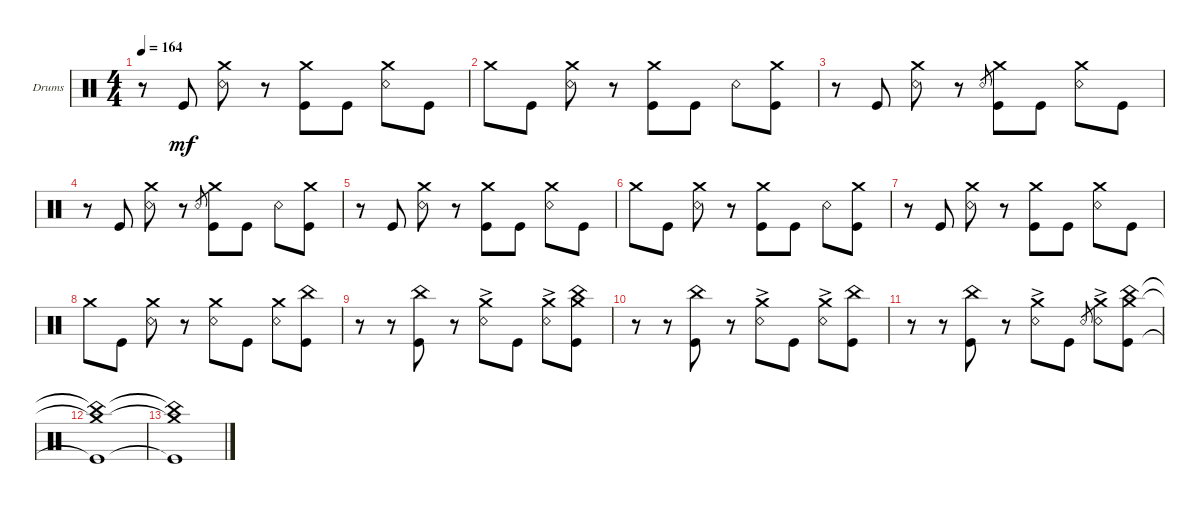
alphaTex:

\defaultSystemsLayout 4
\bracketExtendMode groupsimilarinstruments
\firstSystemTrackNameOrientation horizontal
\otherSystemsTrackNameOrientation horizontal
\track ("Drums" "Drums") {instrument percussion}
\staff {score}
\articulation defaults
\ts (4 4)
\tempo 164
\clef neutral
\scale
0.333333
\ks c
r.8{dy mf} "Kick (hit)".8 ("Snare (rim shot)" "Crash medium (hit)").8 r.8 ("Kick (hit)" "Crash medium (hit)").8 "Kick (hit)".8 ("Snare (rim shot)" "Crash medium (hit)").8 "Kick (hit)".8 |
\scale
0.333333 "Crash medium (hit)".8 "Kick (hit)".8 ("Snare (rim shot)" "Crash medium (hit)").8 r.8 ("Kick (hit)" "Crash medium (hit)").8 "Kick (hit)".8 "Snare (rim shot)".8 ("Crash medium (hit)" "Kick (hit)").8 |
\scale
0.333333 r.8 "Kick (hit)".8 ("Snare (rim shot)" "Crash medium (hit)").8 r.8 "Snare (rim shot)".8{gr} ("Kick (hit)" "Crash medium (hit)").8 "Kick (hit)".8 ("Snare (rim shot)" "Crash medium (hit)").8 "Kick (hit)".8 |
\scale
0.333333 r.8 "Kick (hit)".8 ("Snare (rim shot)" "Crash medium (hit)").8 r.8 "Snare (rim shot)".8{gr} ("Kick (hit)" "Crash medium (hit)").8 "Kick (hit)".8 "Snare (rim shot)".8 ("Kick (hit)" "Crash medium (hit)").8 |
\scale
0.333333 r.8 "Kick (hit)".8 ("Snare (rim shot)" "Crash medium (hit)").8 r.8 ("Kick (hit)" "Crash medium (hit)").8 "Kick (hit)".8 ("Snare (rim shot)" "Crash medium (hit)").8 "Kick (hit)".8 |
\scale
0.333333 "Crash medium (hit)".8 "Kick (hit)".8 ("Snare (rim shot)" "Crash medium (hit)").8 r.8 ("Kick (hit)" "Crash medium (hit)").8 "Kick (hit)".8 "Snare (rim shot)".8 ("Crash medium (hit)" "Kick (hit)").8 |
\scale
0.333333 r.8 "Kick (hit)".8 ("Snare (rim shot)" "Crash medium (hit)").8 r.8 ("Kick (hit)" "Crash medium (hit)").8 "Kick (hit)".8 ("Snare (rim shot)" "Crash medium (hit)").8 "Kick (hit)".8 |
\scale
0.333333 "Crash medium (hit)".8 "Kick (hit)".8 ("Snare (rim shot)" "Crash medium (hit)").8 r.8 ("Snare (rim shot)" "Crash medium (hit)").8 "Kick (hit)".8 ("Snare (rim shot)" "Crash medium (hit)").8 ("Kick (hit)" "China (hit)").8 |
\scale
0.333333 r.8 r.8 ("Kick (hit)" "China (hit)").8 r.8 ("Snare (rim shot)"{ac} "Crash medium (hit)").8 "Kick (hit)".8 ("Snare (rim shot)"{ac} "Crash medium (hit)").8 ("Kick (hit)" "China (hit)" "Crash medium (hit)").8 |
\scale
0.333333 r.8 r.8 ("Kick (hit)" "China (hit)").8 r.8 ("Snare (rim shot)"{ac} "Crash medium (hit)").8 "Kick (hit)".8 ("Snare (rim shot)"{ac} "Crash medium (hit)").8 ("Kick (hit)" "China (hit)").8 |
r.8 r.8 ("Kick (hit)" "China (hit)").8 r.8 ("Snare (rim shot)"{ac} "Crash medium (hit)").8 "Kick (hit)".8 "Snare (rim shot)".8{gr} ("Snare (rim shot)"{ac} "Crash medium (hit)").8 ("Kick (hit)" "Crash medium (hit)" "China (hit)").8 |
("Kick (hit)"{t} "Crash medium (hit)"{t} "China (hit)"{t}).1 |
("Kick (hit)"{t} "Crash medium (hit)"{t} "China (hit)"{t}).1
